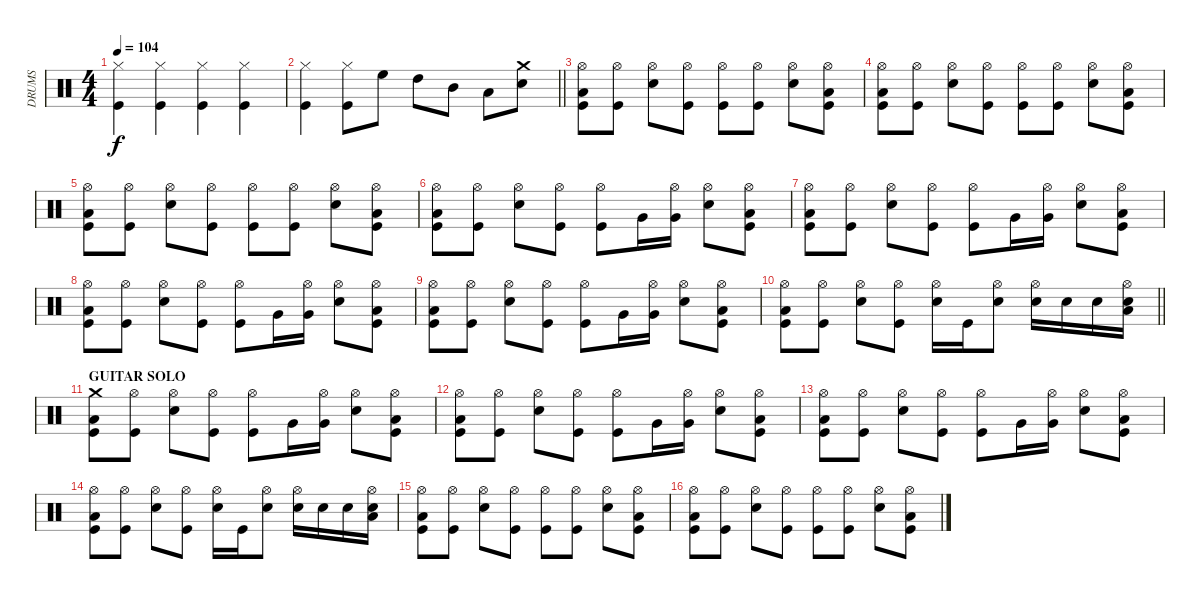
\track ("DRUMS" "DRUMS") {instrument percussion}
\staff {score}
\articulation defaults
\ts (4 4)
\tempo 104
\clef neutral
\ks c
("Hi-Hat (closed)" "Kick (hit)").4{dy f} ("Hi-Hat (closed)" "Kick (hit)").4 ("Hi-Hat (closed)" "Kick (hit)").4 ("Hi-Hat (closed)" "Kick (hit)").4 |
\barLineRight lightlight
("Kick (hit)" "Hi-Hat (closed)").4 ("Hi-Hat (closed)" "Kick (hit)").8 "High Floor Tom (hit)".8 "High Tom (hit)".8 "Mid Tom (hit)".8 "Low Floor Tom (hit)".8 ("Snare (hit) 2" "Crash medium (hit)").8 |
("Kick (hit)" "Hi-Hat (open)" "Low Floor Tom (hit)").8 ("Kick (hit)" "Hi-Hat (open)").8 ("Snare (hit) 2" "Hi-Hat (open)").8 ("Kick (hit)" "Hi-Hat (open)").8 ("Kick (hit)" "Hi-Hat (open)").8 ("Kick (hit)" "Hi-Hat (open)").8 ("Snare (hit) 2" "Hi-Hat (open)").8 ("Kick (hit)" "Hi-Hat (open)" "Low Floor Tom (hit)").8 |
("Kick (hit)" "Hi-Hat (open)" "Low Floor Tom (hit)").8 ("Kick (hit)" "Hi-Hat (open)").8 ("Snare (hit) 2" "Hi-Hat (open)").8 ("Kick (hit)" "Hi-Hat (open)").8 ("Kick (hit)" "Hi-Hat (open)").8 ("Kick (hit)" "Hi-Hat (open)").8 ("Snare (hit) 2" "Hi-Hat (open)").8 ("Kick (hit)" "Hi-Hat (open)" "Low Floor Tom (hit)").8 |
("Kick (hit)" "Hi-Hat (open)" "Low Floor Tom (hit)").8 ("Kick (hit)" "Hi-Hat (open)").8 ("Snare (hit) 2" "Hi-Hat (open)").8 ("Kick (hit)" "Hi-Hat (open)").8 ("Kick (hit)" "Hi-Hat (open)").8 ("Kick (hit)" "Hi-Hat (open)").8 ("Snare (hit) 2" "Hi-Hat (open)").8 ("Kick (hit)" "Hi-Hat (open)" "Low Floor Tom (hit)").8 |
("Kick (hit)" "Hi-Hat (open)" "Low Floor Tom (hit)").8 ("Kick (hit)" "Hi-Hat (open)").8 ("Snare (hit) 2" "Hi-Hat (open)").8 ("Kick (hit)" "Hi-Hat (open)").8 ("Kick (hit)" "Hi-Hat (open)").8 "Very Low Tom (hit)".16 ("Very Low Tom (hit)" "Hi-Hat (open)").16 ("Snare (hit) 2" "Hi-Hat (open)").8 ("Kick (hit)" "Hi-Hat (open)" "Low Floor Tom (hit)").8 |
("Kick (hit)" "Hi-Hat (open)" "Low Floor Tom (hit)").8 ("Kick (hit)" "Hi-Hat (open)").8 ("Snare (hit) 2" "Hi-Hat (open)").8 ("Kick (hit)" "Hi-Hat (open)").8 ("Kick (hit)" "Hi-Hat (open)").8 "Very Low Tom (hit)".16 ("Very Low Tom (hit)" "Hi-Hat (open)").16 ("Snare (hit) 2" "Hi-Hat (open)").8 ("Kick (hit)" "Hi-Hat (open)" "Low Floor Tom (hit)").8 |
("Kick (hit)" "Hi-Hat (open)" "Low Floor Tom (hit)").8 ("Kick (hit)" "Hi-Hat (open)").8 ("Snare (hit) 2" "Hi-Hat (open)").8 ("Kick (hit)" "Hi-Hat (open)").8 ("Kick (hit)" "Hi-Hat (open)").8 "Very Low Tom (hit)".16 ("Very Low Tom (hit)" "Hi-Hat (open)").16 ("Snare (hit) 2" "Hi-Hat (open)").8 ("Kick (hit)" "Hi-Hat (open)" "Low Floor Tom (hit)").8 |
("Kick (hit)" "Hi-Hat (open)" "Low Floor Tom (hit)").8 ("Kick (hit)" "Hi-Hat (open)").8 ("Snare (hit) 2" "Hi-Hat (open)").8 ("Kick (hit)" "Hi-Hat (open)").8 ("Kick (hit)" "Hi-Hat (open)").8 "Very Low Tom (hit)".16 ("Very Low Tom (hit)" "Hi-Hat (open)").16 ("Snare (hit) 2" "Hi-Hat (open)").8 ("Kick (hit)" "Hi-Hat (open)" "Low Floor Tom (hit)").8 |
\barLineRight lightlight
("Kick (hit)" "Hi-Hat (open)" "Low Floor Tom (hit)").8 ("Kick (hit)" "Hi-Hat (open)").8 ("Snare (hit) 2" "Hi-Hat (open)").8 ("Kick (hit)" "Hi-Hat (open)").8 ("Snare (hit) 2" "Hi-Hat (open)").16 "Kick (hit)".16 ("Snare (hit) 2" "Hi-Hat (open)").8 ("Snare (hit) 2" "Hi-Hat (open)").16 "Snare (hit) 2".16 "Snare (hit) 2".16 ("Snare (hit) 2" "Hi-Hat (open)" "Low Floor Tom (hit)").16 |
\section ("" "GUITAR SOLO")
("Kick (hit)" "Crash medium (hit)" "Low Floor Tom (hit)").8 ("Kick (hit)" "Hi-Hat (open)").8 ("Snare (hit) 2" "Hi-Hat (open)").8 ("Kick (hit)" "Hi-Hat (open)").8 ("Kick (hit)" "Hi-Hat (open)").8 "Very Low Tom (hit)".16 ("Very Low Tom (hit)" "Hi-Hat (open)").16 ("Snare (hit) 2" "Hi-Hat (open)").8 ("Kick (hit)" "Hi-Hat (open)" "Low Floor Tom (hit)").8 |
("Kick (hit)" "Hi-Hat (open)" "Low Floor Tom (hit)").8 ("Kick (hit)" "Hi-Hat (open)").8 ("Snare (hit) 2" "Hi-Hat (open)").8 ("Kick (hit)" "Hi-Hat (open)").8 ("Kick (hit)" "Hi-Hat (open)").8 "Very Low Tom (hit)".16 ("Very Low Tom (hit)" "Hi-Hat (open)").16 ("Snare (hit) 2" "Hi-Hat (open)").8 ("Kick (hit)" "Hi-Hat (open)" "Low Floor Tom (hit)").8 |
("Kick (hit)" "Hi-Hat (open)" "Low Floor Tom (hit)").8 ("Kick (hit)" "Hi-Hat (open)").8 ("Snare (hit) 2" "Hi-Hat (open)").8 ("Kick (hit)" "Hi-Hat (open)").8 ("Kick (hit)" "Hi-Hat (open)").8 "Very Low Tom (hit)".16 ("Very Low Tom (hit)" "Hi-Hat (open)").16 ("Snare (hit) 2" "Hi-Hat (open)").8 ("Kick (hit)" "Hi-Hat (open)" "Low Floor Tom (hit)").8 |
("Kick (hit)" "Hi-Hat (open)" "Low Floor Tom (hit)").8 ("Kick (hit)" "Hi-Hat (open)").8 ("Snare (hit) 2" "Hi-Hat (open)").8 ("Kick (hit)" "Hi-Hat (open)").8 ("Snare (hit) 2" "Hi-Hat (open)").16 "Kick (hit)".16 ("Snare (hit) 2" "Hi-Hat (open)").8 ("Snare (hit) 2" "Hi-Hat (open)").16 "Snare (hit) 2".16 "Snare (hit) 2".16 ("Snare (hit) 2" "Hi-Hat (open)" "Low Floor Tom (hit)").16 |
("Kick (hit)" "Hi-Hat (open)" "Low Floor Tom (hit)").8 ("Kick (hit)" "Hi-Hat (open)").8 ("Snare (hit) 2" "Hi-Hat (open)").8 ("Kick (hit)" "Hi-Hat (open)").8 ("Kick (hit)" "Hi-Hat (open)").8 ("Kick (hit)" "Hi-Hat (open)").8 ("Snare (hit) 2" "Hi-Hat (open)").8 ("Kick (hit)" "Hi-Hat (open)" "Low Floor Tom (hit)").8 |
("Kick (hit)" "Hi-Hat (open)" "Low Floor Tom (hit)").8 ("Kick (hit)" "Hi-Hat (open)").8 ("Snare (hit) 2" "Hi-Hat (open)").8 ("Kick (hit)" "Hi-Hat (open)").8 ("Kick (hit)" "Hi-Hat (open)").8 ("Kick (hit)" "Hi-Hat (open)").8 ("Snare (hit) 2" "Hi-Hat (open)").8 ("Kick (hit)" "Hi-Hat (open)" "Low Floor Tom (hit)").8
